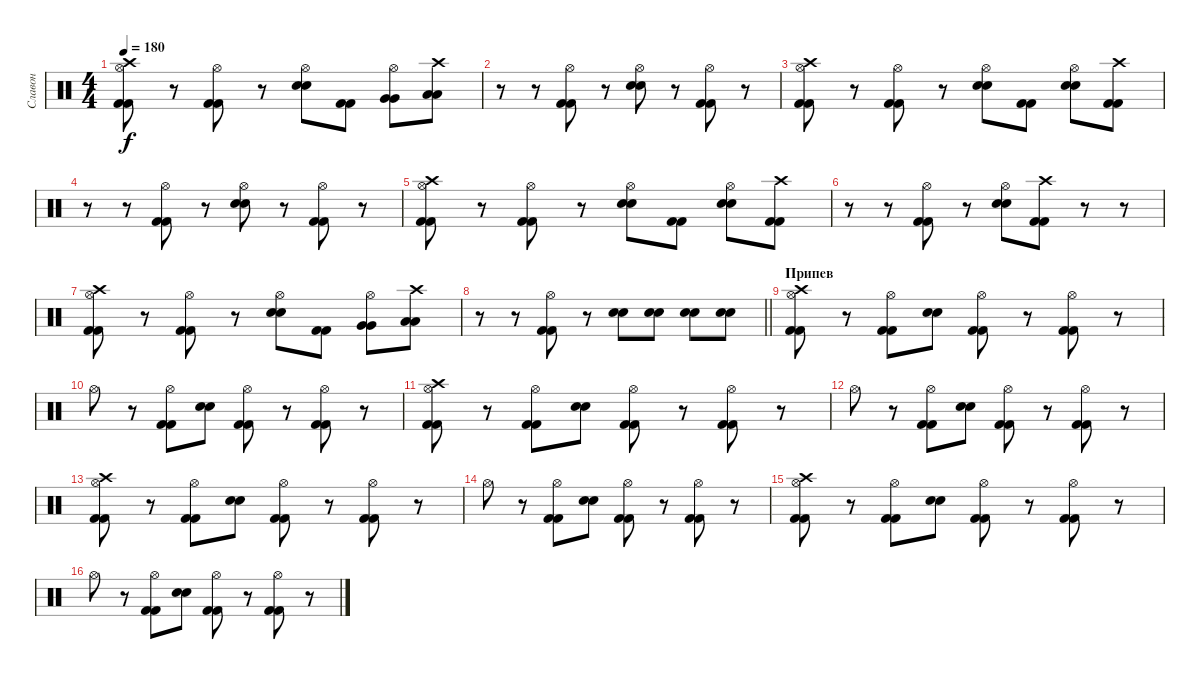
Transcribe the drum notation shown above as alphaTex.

\track ("Славон" "Славон") {instrument percussion}
\staff {score}
\articulation defaults
\ts (4 4)
\tempo 180
\clef neutral
\ks c
("Hi-Hat (open)" "Kick (hit) 2" "Kick (hit) 2" "Crash high (hit)").8{dy f} r.8 ("Hi-Hat (open)" "Kick (hit) 2" "Kick (hit) 2").8 r.8 ("Hi-Hat (open)" "Electric Snare (hit)" "Electric Snare (hit)").8 ("Kick (hit) 2" "Kick (hit) 2").8 ("Hi-Hat (open)" "Very Low Tom (hit)" "Very Low Tom (hit)").8 ("Low Floor Tom (hit)" "Low Floor Tom (hit)" "Crash high (hit)").8 |
r.8 r.8 ("Hi-Hat (open)" "Kick (hit) 2" "Kick (hit) 2").8 r.8 ("Hi-Hat (open)" "Electric Snare (hit)" "Electric Snare (hit)").8 r.8 ("Hi-Hat (open)" "Kick (hit) 2" "Kick (hit) 2").8 r.8 |
("Hi-Hat (open)" "Kick (hit) 2" "Kick (hit) 2" "Crash high (hit)").8 r.8 ("Hi-Hat (open)" "Kick (hit) 2" "Kick (hit) 2").8 r.8 ("Hi-Hat (open)" "Electric Snare (hit)" "Electric Snare (hit)").8 ("Kick (hit) 2" "Kick (hit) 2").8 ("Hi-Hat (open)" "Electric Snare (hit)" "Electric Snare (hit)").8 ("Kick (hit) 2" "Kick (hit) 2" "Crash high (hit)").8 |
r.8 r.8 ("Hi-Hat (open)" "Kick (hit) 2" "Kick (hit) 2").8 r.8 ("Hi-Hat (open)" "Electric Snare (hit)" "Electric Snare (hit)").8 r.8 ("Hi-Hat (open)" "Kick (hit) 2" "Kick (hit) 2").8 r.8 |
("Hi-Hat (open)" "Kick (hit) 2" "Kick (hit) 2" "Crash high (hit)").8 r.8 ("Hi-Hat (open)" "Kick (hit) 2" "Kick (hit) 2").8 r.8 ("Hi-Hat (open)" "Electric Snare (hit)" "Electric Snare (hit)").8 ("Kick (hit) 2" "Kick (hit) 2").8 ("Hi-Hat (open)" "Electric Snare (hit)" "Electric Snare (hit)").8 ("Kick (hit) 2" "Kick (hit) 2" "Crash high (hit)").8 |
r.8 r.8 ("Hi-Hat (open)" "Kick (hit) 2" "Kick (hit) 2").8 r.8 ("Hi-Hat (open)" "Electric Snare (hit)" "Electric Snare (hit)").8 ("Kick (hit) 2" "Kick (hit) 2" "Crash high (hit)").8 r.8 r.8 |
("Hi-Hat (open)" "Kick (hit) 2" "Kick (hit) 2" "Crash high (hit)").8 r.8 ("Hi-Hat (open)" "Kick (hit) 2" "Kick (hit) 2").8 r.8 ("Hi-Hat (open)" "Electric Snare (hit)" "Electric Snare (hit)").8 ("Kick (hit) 2" "Kick (hit) 2").8 ("Hi-Hat (open)" "Very Low Tom (hit)" "Very Low Tom (hit)").8 ("Low Floor Tom (hit)" "Low Floor Tom (hit)" "Crash high (hit)").8 |
\barLineRight lightlight
r.8 r.8 ("Hi-Hat (open)" "Kick (hit) 2" "Kick (hit) 2").8 r.8 ("Electric Snare (hit)" "Electric Snare (hit)").8 ("Electric Snare (hit)" "Electric Snare (hit)").8 ("Electric Snare (hit)" "Electric Snare (hit)").8 ("Electric Snare (hit)" "Electric Snare (hit)").8 |
\section ("" "Припев")
("Hi-Hat (open)" "Kick (hit) 2" "Kick (hit) 2" "Crash high (hit)").8 r.8 ("Hi-Hat (open)" "Kick (hit) 2" "Kick (hit) 2").8 ("Electric Snare (hit)" "Electric Snare (hit)").8 ("Hi-Hat (open)" "Kick (hit) 2" "Kick (hit) 2").8 r.8 ("Hi-Hat (open)" "Kick (hit) 2" "Kick (hit) 2").8 r.8 |
"Hi-Hat (open)".8 r.8 ("Hi-Hat (open)" "Kick (hit) 2" "Kick (hit) 2").8 ("Electric Snare (hit)" "Electric Snare (hit)").8 ("Hi-Hat (open)" "Kick (hit) 2" "Kick (hit) 2").8 r.8 ("Hi-Hat (open)" "Kick (hit) 2" "Kick (hit) 2").8 r.8 |
("Hi-Hat (open)" "Kick (hit) 2" "Kick (hit) 2" "Crash high (hit)").8 r.8 ("Hi-Hat (open)" "Kick (hit) 2" "Kick (hit) 2").8 ("Electric Snare (hit)" "Electric Snare (hit)").8 ("Hi-Hat (open)" "Kick (hit) 2" "Kick (hit) 2").8 r.8 ("Hi-Hat (open)" "Kick (hit) 2" "Kick (hit) 2").8 r.8 |
"Hi-Hat (open)".8 r.8 ("Hi-Hat (open)" "Kick (hit) 2" "Kick (hit) 2").8 ("Electric Snare (hit)" "Electric Snare (hit)").8 ("Hi-Hat (open)" "Kick (hit) 2" "Kick (hit) 2").8 r.8 ("Hi-Hat (open)" "Kick (hit) 2" "Kick (hit) 2").8 r.8 |
("Hi-Hat (open)" "Kick (hit) 2" "Kick (hit) 2" "Crash high (hit)").8 r.8 ("Hi-Hat (open)" "Kick (hit) 2" "Kick (hit) 2").8 ("Electric Snare (hit)" "Electric Snare (hit)").8 ("Hi-Hat (open)" "Kick (hit) 2" "Kick (hit) 2").8 r.8 ("Hi-Hat (open)" "Kick (hit) 2" "Kick (hit) 2").8 r.8 |
"Hi-Hat (open)".8 r.8 ("Hi-Hat (open)" "Kick (hit) 2" "Kick (hit) 2").8 ("Electric Snare (hit)" "Electric Snare (hit)").8 ("Hi-Hat (open)" "Kick (hit) 2" "Kick (hit) 2").8 r.8 ("Hi-Hat (open)" "Kick (hit) 2" "Kick (hit) 2").8 r.8 |
("Hi-Hat (open)" "Kick (hit) 2" "Kick (hit) 2" "Crash high (hit)").8 r.8 ("Hi-Hat (open)" "Kick (hit) 2" "Kick (hit) 2").8 ("Electric Snare (hit)" "Electric Snare (hit)").8 ("Hi-Hat (open)" "Kick (hit) 2" "Kick (hit) 2").8 r.8 ("Hi-Hat (open)" "Kick (hit) 2" "Kick (hit) 2").8 r.8 |
"Hi-Hat (open)".8 r.8 ("Hi-Hat (open)" "Kick (hit) 2" "Kick (hit) 2").8 ("Electric Snare (hit)" "Electric Snare (hit)").8 ("Hi-Hat (open)" "Kick (hit) 2" "Kick (hit) 2").8 r.8 ("Hi-Hat (open)" "Kick (hit) 2" "Kick (hit) 2").8 r.8
